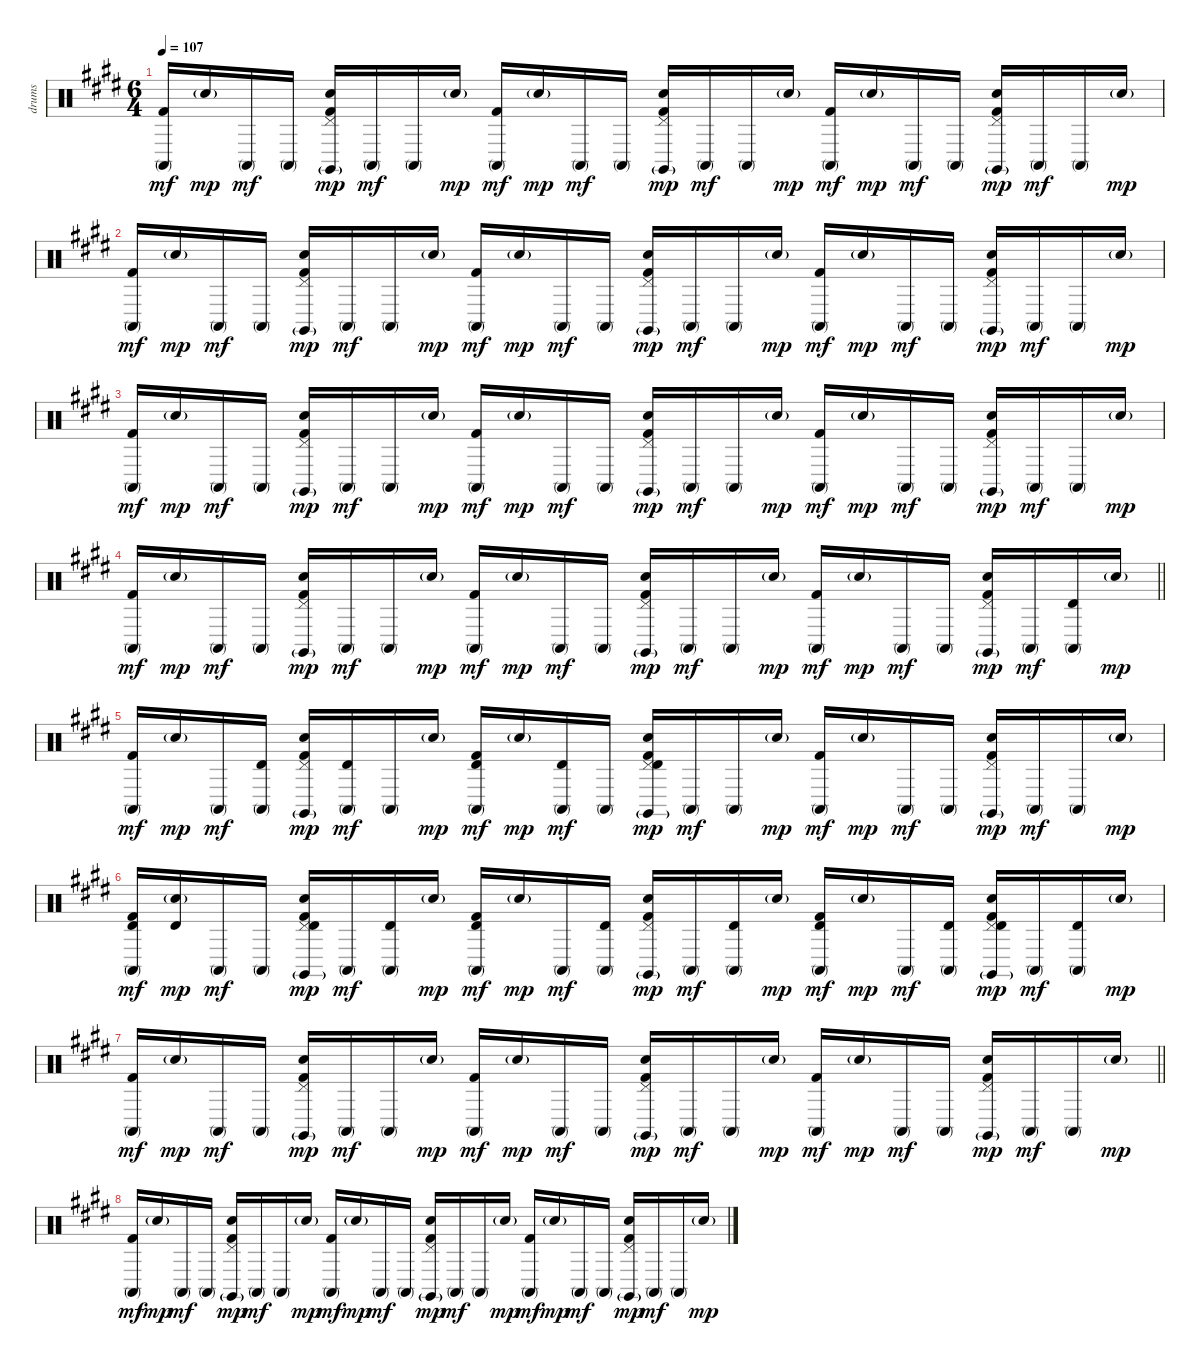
\track ("drums" "drums") {instrument percussion}
\staff {score}
\articulation defaults
\ts (6 4)
\tempo 107
\clef neutral
\ks e
("Conga high (mute)" "Kick (hit) 2").16{dy mf} "Electric Snare (hit)"{g}.16{dy mp} "Conga high (mute)".16{dy mf} "Conga high (mute)".16 ("Pedal Hi-Hat (hit)" "Claves (hit)"{g} "Electric Snare (hit)" "Kick (hit) 2").16{dy mp} "Conga high (mute)".16{dy mf} "Conga high (mute)".16 "Electric Snare (hit)"{g}.16{dy mp} ("Conga high (mute)" "Kick (hit) 2").16{dy mf} "Electric Snare (hit)"{g}.16{dy mp} "Conga high (mute)".16{dy mf} "Conga high (mute)".16 ("Pedal Hi-Hat (hit)" "Claves (hit)"{g} "Electric Snare (hit)" "Kick (hit) 2").16{dy mp} "Conga high (mute)".16{dy mf} "Conga high (mute)".16 "Electric Snare (hit)"{g}.16{dy mp} ("Conga high (mute)" "Kick (hit) 2").16{dy mf} "Electric Snare (hit)"{g}.16{dy mp} "Conga high (mute)".16{dy mf} "Conga high (mute)".16 ("Pedal Hi-Hat (hit)" "Claves (hit)"{g} "Electric Snare (hit)" "Kick (hit) 2").16{dy mp} "Conga high (mute)".16{dy mf} "Conga high (mute)".16 "Electric Snare (hit)"{g}.16{dy mp} |
("Conga high (mute)" "Kick (hit) 2").16{dy mf} "Electric Snare (hit)"{g}.16{dy mp} "Conga high (mute)".16{dy mf} "Conga high (mute)".16 ("Pedal Hi-Hat (hit)" "Claves (hit)"{g} "Electric Snare (hit)" "Kick (hit) 2").16{dy mp} "Conga high (mute)".16{dy mf} "Conga high (mute)".16 "Electric Snare (hit)"{g}.16{dy mp} ("Conga high (mute)" "Kick (hit) 2").16{dy mf} "Electric Snare (hit)"{g}.16{dy mp} "Conga high (mute)".16{dy mf} "Conga high (mute)".16 ("Pedal Hi-Hat (hit)" "Claves (hit)"{g} "Electric Snare (hit)" "Kick (hit) 2").16{dy mp} "Conga high (mute)".16{dy mf} "Conga high (mute)".16 "Electric Snare (hit)"{g}.16{dy mp} ("Conga high (mute)" "Kick (hit) 2").16{dy mf} "Electric Snare (hit)"{g}.16{dy mp} "Conga high (mute)".16{dy mf} "Conga high (mute)".16 ("Pedal Hi-Hat (hit)" "Claves (hit)"{g} "Electric Snare (hit)" "Kick (hit) 2").16{dy mp} "Conga high (mute)".16{dy mf} "Conga high (mute)".16 "Electric Snare (hit)"{g}.16{dy mp} |
("Conga high (mute)" "Kick (hit) 2").16{dy mf} "Electric Snare (hit)"{g}.16{dy mp} "Conga high (mute)".16{dy mf} "Conga high (mute)".16 ("Pedal Hi-Hat (hit)" "Claves (hit)"{g} "Electric Snare (hit)" "Kick (hit) 2").16{dy mp} "Conga high (mute)".16{dy mf} "Conga high (mute)".16 "Electric Snare (hit)"{g}.16{dy mp} ("Conga high (mute)" "Kick (hit) 2").16{dy mf} "Electric Snare (hit)"{g}.16{dy mp} "Conga high (mute)".16{dy mf} "Conga high (mute)".16 ("Pedal Hi-Hat (hit)" "Claves (hit)"{g} "Electric Snare (hit)" "Kick (hit) 2").16{dy mp} "Conga high (mute)".16{dy mf} "Conga high (mute)".16 "Electric Snare (hit)"{g}.16{dy mp} ("Conga high (mute)" "Kick (hit) 2").16{dy mf} "Electric Snare (hit)"{g}.16{dy mp} "Conga high (mute)".16{dy mf} "Conga high (mute)".16 ("Pedal Hi-Hat (hit)" "Claves (hit)"{g} "Electric Snare (hit)" "Kick (hit) 2").16{dy mp} "Conga high (mute)".16{dy mf} "Conga high (mute)".16 "Electric Snare (hit)"{g}.16{dy mp} |
\barLineRight lightlight
("Conga high (mute)" "Kick (hit) 2").16{dy mf} "Electric Snare (hit)"{g}.16{dy mp} "Conga high (mute)".16{dy mf} "Conga high (mute)".16 ("Pedal Hi-Hat (hit)" "Claves (hit)"{g} "Electric Snare (hit)" "Kick (hit) 2").16{dy mp} "Conga high (mute)".16{dy mf} "Conga high (mute)".16 "Electric Snare (hit)"{g}.16{dy mp} ("Conga high (mute)" "Kick (hit) 2").16{dy mf} "Electric Snare (hit)"{g}.16{dy mp} "Conga high (mute)".16{dy mf} "Conga high (mute)".16 ("Pedal Hi-Hat (hit)" "Claves (hit)"{g} "Electric Snare (hit)" "Kick (hit) 2").16{dy mp} "Conga high (mute)".16{dy mf} "Conga high (mute)".16 "Electric Snare (hit)"{g}.16{dy mp} ("Conga high (mute)" "Kick (hit) 2").16{dy mf} "Electric Snare (hit)"{g}.16{dy mp} "Conga high (mute)".16{dy mf} "Conga high (mute)".16 ("Pedal Hi-Hat (hit)" "Claves (hit)"{g} "Electric Snare (hit)" "Kick (hit) 2").16{dy mp} "Conga high (mute)".16{dy mf} ("Conga high (mute)" "Timbale high (hit)").16 "Electric Snare (hit)"{g}.16{dy mp} |
("Conga high (mute)" "Kick (hit) 2").16{dy mf} "Electric Snare (hit)"{g}.16{dy mp} "Conga high (mute)".16{dy mf} ("Conga high (mute)" "Timbale high (hit)").16 ("Pedal Hi-Hat (hit)" "Claves (hit)"{g} "Electric Snare (hit)" "Kick (hit) 2").16{dy mp} ("Conga high (mute)" "Timbale high (hit)").16{dy mf} "Conga high (mute)".16 "Electric Snare (hit)"{g}.16{dy mp} ("Conga high (mute)" "Timbale high (hit)" "Kick (hit) 2").16{dy mf} "Electric Snare (hit)"{g}.16{dy mp} ("Conga high (mute)" "Timbale high (hit)").16{dy mf} "Conga high (mute)".16 ("Pedal Hi-Hat (hit)" "Timbale high (hit)" "Claves (hit)"{g} "Electric Snare (hit)" "Kick (hit) 2").16{dy mp} "Conga high (mute)".16{dy mf} "Conga high (mute)".16 "Electric Snare (hit)"{g}.16{dy mp} ("Conga high (mute)" "Kick (hit) 2").16{dy mf} "Electric Snare (hit)"{g}.16{dy mp} "Conga high (mute)".16{dy mf} "Conga high (mute)".16 ("Pedal Hi-Hat (hit)" "Claves (hit)"{g} "Electric Snare (hit)" "Kick (hit) 2").16{dy mp} "Conga high (mute)".16{dy mf} "Conga high (mute)".16 "Electric Snare (hit)"{g}.16{dy mp} |
("Conga high (mute)" "Timbale high (hit)" "Kick (hit) 2").16{dy mf} ("Timbale high (hit)" "Electric Snare (hit)"{g}).16{dy mp} "Conga high (mute)".16{dy mf} "Conga high (mute)".16 ("Pedal Hi-Hat (hit)" "Timbale high (hit)" "Claves (hit)"{g} "Electric Snare (hit)" "Kick (hit) 2").16{dy mp} "Conga high (mute)".16{dy mf} ("Conga high (mute)" "Timbale high (hit)").16 "Electric Snare (hit)"{g}.16{dy mp} ("Conga high (mute)" "Timbale high (hit)" "Kick (hit) 2").16{dy mf} "Electric Snare (hit)"{g}.16{dy mp} "Conga high (mute)".16{dy mf} ("Conga high (mute)" "Timbale high (hit)").16 ("Pedal Hi-Hat (hit)" "Claves (hit)"{g} "Electric Snare (hit)" "Kick (hit) 2").16{dy mp} "Conga high (mute)".16{dy mf} ("Conga high (mute)" "Timbale high (hit)").16 "Electric Snare (hit)"{g}.16{dy mp} ("Conga high (mute)" "Timbale high (hit)" "Kick (hit) 2").16{dy mf} "Electric Snare (hit)"{g}.16{dy mp} "Conga high (mute)".16{dy mf} ("Conga high (mute)" "Timbale high (hit)").16 ("Pedal Hi-Hat (hit)" "Timbale high (hit)" "Claves (hit)"{g} "Electric Snare (hit)" "Kick (hit) 2").16{dy mp} "Conga high (mute)".16{dy mf} ("Conga high (mute)" "Timbale high (hit)").16 "Electric Snare (hit)"{g}.16{dy mp} |
\barLineRight lightlight
("Conga high (mute)" "Kick (hit) 2").16{dy mf} "Electric Snare (hit)"{g}.16{dy mp} "Conga high (mute)".16{dy mf} "Conga high (mute)".16 ("Pedal Hi-Hat (hit)" "Claves (hit)"{g} "Electric Snare (hit)" "Kick (hit) 2").16{dy mp} "Conga high (mute)".16{dy mf} "Conga high (mute)".16 "Electric Snare (hit)"{g}.16{dy mp} ("Conga high (mute)" "Kick (hit) 2").16{dy mf} "Electric Snare (hit)"{g}.16{dy mp} "Conga high (mute)".16{dy mf} "Conga high (mute)".16 ("Pedal Hi-Hat (hit)" "Claves (hit)"{g} "Electric Snare (hit)" "Kick (hit) 2").16{dy mp} "Conga high (mute)".16{dy mf} "Conga high (mute)".16 "Electric Snare (hit)"{g}.16{dy mp} ("Conga high (mute)" "Kick (hit) 2").16{dy mf} "Electric Snare (hit)"{g}.16{dy mp} "Conga high (mute)".16{dy mf} "Conga high (mute)".16 ("Pedal Hi-Hat (hit)" "Claves (hit)"{g} "Electric Snare (hit)" "Kick (hit) 2").16{dy mp} "Conga high (mute)".16{dy mf} "Conga high (mute)".16 "Electric Snare (hit)"{g}.16{dy mp} |
("Conga high (mute)" "Kick (hit) 2").16{dy mf} "Electric Snare (hit)"{g}.16{dy mp} "Conga high (mute)".16{dy mf} "Conga high (mute)".16 ("Pedal Hi-Hat (hit)" "Claves (hit)"{g} "Electric Snare (hit)" "Kick (hit) 2").16{dy mp} "Conga high (mute)".16{dy mf} "Conga high (mute)".16 "Electric Snare (hit)"{g}.16{dy mp} ("Conga high (mute)" "Kick (hit) 2").16{dy mf} "Electric Snare (hit)"{g}.16{dy mp} "Conga high (mute)".16{dy mf} "Conga high (mute)".16 ("Pedal Hi-Hat (hit)" "Claves (hit)"{g} "Electric Snare (hit)" "Kick (hit) 2").16{dy mp} "Conga high (mute)".16{dy mf} "Conga high (mute)".16 "Electric Snare (hit)"{g}.16{dy mp} ("Conga high (mute)" "Kick (hit) 2").16{dy mf} "Electric Snare (hit)"{g}.16{dy mp} "Conga high (mute)".16{dy mf} "Conga high (mute)".16 ("Pedal Hi-Hat (hit)" "Claves (hit)"{g} "Electric Snare (hit)" "Kick (hit) 2").16{dy mp} "Conga high (mute)".16{dy mf} "Conga high (mute)".16 "Electric Snare (hit)"{g}.16{dy mp}
